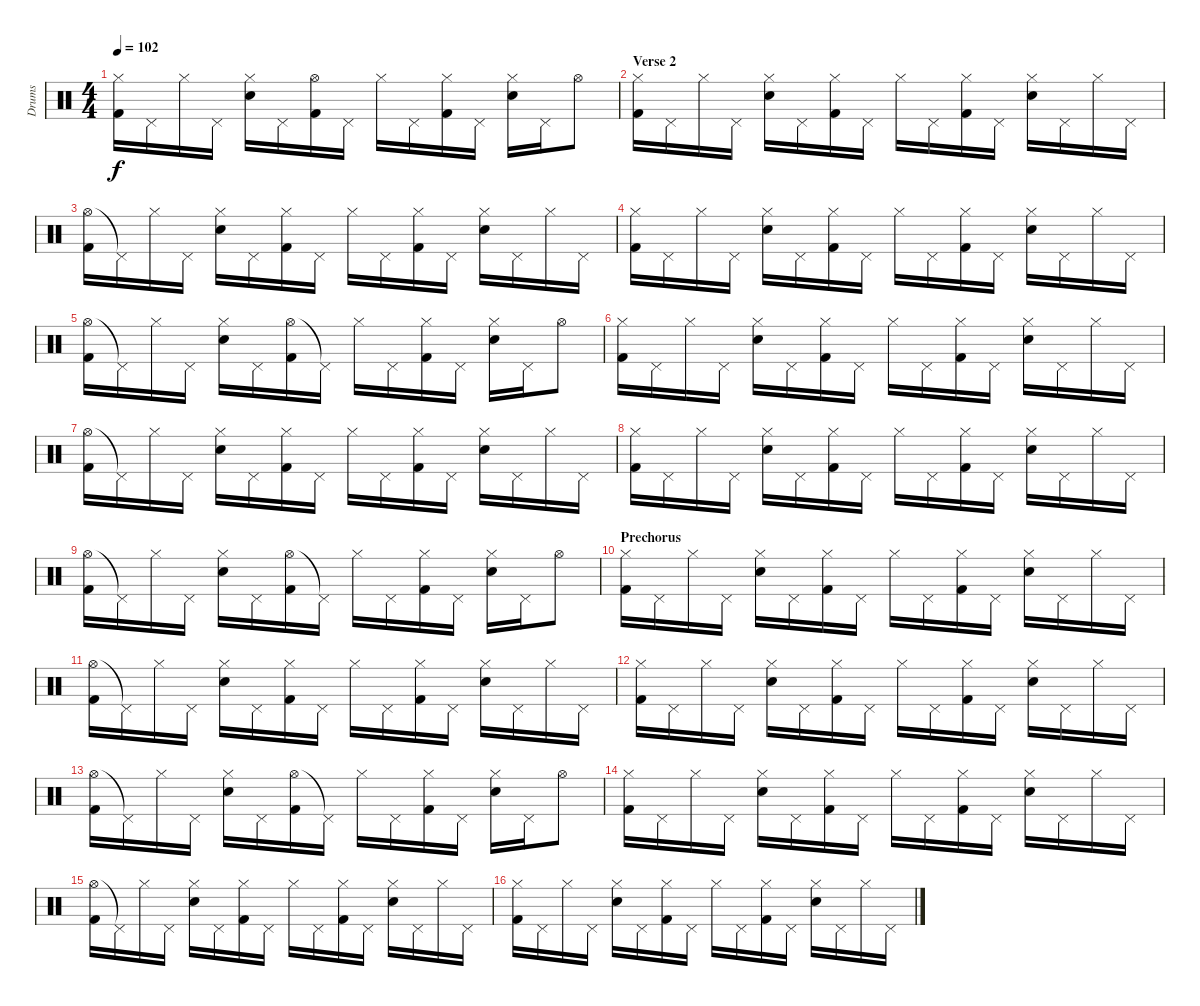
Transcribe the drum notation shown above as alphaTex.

\track ("Drums" "Drums") {instrument percussion}
\staff {score}
\articulation defaults
\ts (4 4)
\tempo 102
\clef neutral
\ks c
("Hi-Hat (closed)" "Kick (hit) 2").16{dy f} "Pedal Hi-Hat (hit)".16 "Hi-Hat (closed)".16 "Pedal Hi-Hat (hit)".16 ("Hi-Hat (closed)" "Electric Snare (hit)").16 "Pedal Hi-Hat (hit)".16 ("Hi-Hat (open)" "Kick (hit) 2").16 "Pedal Hi-Hat (hit)".16 "Hi-Hat (closed)".16 "Pedal Hi-Hat (hit)".16 ("Hi-Hat (closed)" "Kick (hit) 2").16 "Pedal Hi-Hat (hit)".16 ("Hi-Hat (closed)" "Electric Snare (hit)").16 "Pedal Hi-Hat (hit)".16 "Hi-Hat (open)".8 |
\section ("" "Verse 2")
("Hi-Hat (closed)" "Kick (hit) 2").16 "Pedal Hi-Hat (hit)".16 "Hi-Hat (closed)".16 "Pedal Hi-Hat (hit)".16 ("Hi-Hat (closed)" "Electric Snare (hit)").16 "Pedal Hi-Hat (hit)".16 ("Hi-Hat (closed)" "Kick (hit) 2").16 "Pedal Hi-Hat (hit)".16 "Hi-Hat (closed)".16 "Pedal Hi-Hat (hit)".16 ("Hi-Hat (closed)" "Kick (hit) 2").16 "Pedal Hi-Hat (hit)".16 ("Hi-Hat (closed)" "Electric Snare (hit)").16 "Pedal Hi-Hat (hit)".16 "Hi-Hat (closed)".16 "Pedal Hi-Hat (hit)".16 |
("Hi-Hat (open)" "Kick (hit) 2").16 "Pedal Hi-Hat (hit)"{t}.16 "Hi-Hat (closed)".16 "Pedal Hi-Hat (hit)".16 ("Hi-Hat (closed)" "Electric Snare (hit)").16 "Pedal Hi-Hat (hit)".16 ("Hi-Hat (closed)" "Kick (hit) 2").16 "Pedal Hi-Hat (hit)".16 "Hi-Hat (closed)".16 "Pedal Hi-Hat (hit)".16 ("Hi-Hat (closed)" "Kick (hit) 2").16 "Pedal Hi-Hat (hit)".16 ("Hi-Hat (closed)" "Electric Snare (hit)").16 "Pedal Hi-Hat (hit)".16 "Hi-Hat (closed)".16 "Pedal Hi-Hat (hit)".16 |
("Hi-Hat (closed)" "Kick (hit) 2").16 "Pedal Hi-Hat (hit)".16 "Hi-Hat (closed)".16 "Pedal Hi-Hat (hit)".16 ("Hi-Hat (closed)" "Electric Snare (hit)").16 "Pedal Hi-Hat (hit)".16 ("Hi-Hat (closed)" "Kick (hit) 2").16 "Pedal Hi-Hat (hit)".16 "Hi-Hat (closed)".16 "Pedal Hi-Hat (hit)".16 ("Hi-Hat (closed)" "Kick (hit) 2").16 "Pedal Hi-Hat (hit)".16 ("Hi-Hat (closed)" "Electric Snare (hit)").16 "Pedal Hi-Hat (hit)".16 "Hi-Hat (closed)".16 "Pedal Hi-Hat (hit)".16 |
("Hi-Hat (open)" "Kick (hit) 2").16 "Pedal Hi-Hat (hit)"{t}.16 "Hi-Hat (closed)".16 "Pedal Hi-Hat (hit)".16 ("Hi-Hat (closed)" "Electric Snare (hit)").16 "Pedal Hi-Hat (hit)".16 ("Hi-Hat (open)" "Kick (hit) 2").16 "Pedal Hi-Hat (hit)"{t}.16 "Hi-Hat (closed)".16 "Pedal Hi-Hat (hit)".16 ("Hi-Hat (closed)" "Kick (hit) 2").16 "Pedal Hi-Hat (hit)".16 ("Hi-Hat (closed)" "Electric Snare (hit)").16 "Pedal Hi-Hat (hit)".16 "Hi-Hat (open)".8 |
("Hi-Hat (closed)" "Kick (hit) 2").16 "Pedal Hi-Hat (hit)".16 "Hi-Hat (closed)".16 "Pedal Hi-Hat (hit)".16 ("Hi-Hat (closed)" "Electric Snare (hit)").16 "Pedal Hi-Hat (hit)".16 ("Hi-Hat (closed)" "Kick (hit) 2").16 "Pedal Hi-Hat (hit)".16 "Hi-Hat (closed)".16 "Pedal Hi-Hat (hit)".16 ("Hi-Hat (closed)" "Kick (hit) 2").16 "Pedal Hi-Hat (hit)".16 ("Hi-Hat (closed)" "Electric Snare (hit)").16 "Pedal Hi-Hat (hit)".16 "Hi-Hat (closed)".16 "Pedal Hi-Hat (hit)".16 |
("Hi-Hat (open)" "Kick (hit) 2").16 "Pedal Hi-Hat (hit)"{t}.16 "Hi-Hat (closed)".16 "Pedal Hi-Hat (hit)".16 ("Hi-Hat (closed)" "Electric Snare (hit)").16 "Pedal Hi-Hat (hit)".16 ("Hi-Hat (closed)" "Kick (hit) 2").16 "Pedal Hi-Hat (hit)".16 "Hi-Hat (closed)".16 "Pedal Hi-Hat (hit)".16 ("Hi-Hat (closed)" "Kick (hit) 2").16 "Pedal Hi-Hat (hit)".16 ("Hi-Hat (closed)" "Electric Snare (hit)").16 "Pedal Hi-Hat (hit)".16 "Hi-Hat (closed)".16 "Pedal Hi-Hat (hit)".16 |
("Hi-Hat (closed)" "Kick (hit) 2").16 "Pedal Hi-Hat (hit)".16 "Hi-Hat (closed)".16 "Pedal Hi-Hat (hit)".16 ("Hi-Hat (closed)" "Electric Snare (hit)").16 "Pedal Hi-Hat (hit)".16 ("Hi-Hat (closed)" "Kick (hit) 2").16 "Pedal Hi-Hat (hit)".16 "Hi-Hat (closed)".16 "Pedal Hi-Hat (hit)".16 ("Hi-Hat (closed)" "Kick (hit) 2").16 "Pedal Hi-Hat (hit)".16 ("Hi-Hat (closed)" "Electric Snare (hit)").16 "Pedal Hi-Hat (hit)".16 "Hi-Hat (closed)".16 "Pedal Hi-Hat (hit)".16 |
("Hi-Hat (open)" "Kick (hit) 2").16 "Pedal Hi-Hat (hit)"{t}.16 "Hi-Hat (closed)".16 "Pedal Hi-Hat (hit)".16 ("Hi-Hat (closed)" "Electric Snare (hit)").16 "Pedal Hi-Hat (hit)".16 ("Hi-Hat (open)" "Kick (hit) 2").16 "Pedal Hi-Hat (hit)"{t}.16 "Hi-Hat (closed)".16 "Pedal Hi-Hat (hit)".16 ("Hi-Hat (closed)" "Kick (hit) 2").16 "Pedal Hi-Hat (hit)".16 ("Hi-Hat (closed)" "Electric Snare (hit)").16 "Pedal Hi-Hat (hit)".16 "Hi-Hat (open)".8 |
\section ("" "Prechorus")
("Hi-Hat (closed)" "Kick (hit) 2").16 "Pedal Hi-Hat (hit)".16 "Hi-Hat (closed)".16 "Pedal Hi-Hat (hit)".16 ("Hi-Hat (closed)" "Electric Snare (hit)").16 "Pedal Hi-Hat (hit)".16 ("Hi-Hat (closed)" "Kick (hit) 2").16 "Pedal Hi-Hat (hit)".16 "Hi-Hat (closed)".16 "Pedal Hi-Hat (hit)".16 ("Hi-Hat (closed)" "Kick (hit) 2").16 "Pedal Hi-Hat (hit)".16 ("Hi-Hat (closed)" "Electric Snare (hit)").16 "Pedal Hi-Hat (hit)".16 "Hi-Hat (closed)".16 "Pedal Hi-Hat (hit)".16 |
("Hi-Hat (open)" "Kick (hit) 2").16 "Pedal Hi-Hat (hit)"{t}.16 "Hi-Hat (closed)".16 "Pedal Hi-Hat (hit)".16 ("Hi-Hat (closed)" "Electric Snare (hit)").16 "Pedal Hi-Hat (hit)".16 ("Hi-Hat (closed)" "Kick (hit) 2").16 "Pedal Hi-Hat (hit)".16 "Hi-Hat (closed)".16 "Pedal Hi-Hat (hit)".16 ("Hi-Hat (closed)" "Kick (hit) 2").16 "Pedal Hi-Hat (hit)".16 ("Hi-Hat (closed)" "Electric Snare (hit)").16 "Pedal Hi-Hat (hit)".16 "Hi-Hat (closed)".16 "Pedal Hi-Hat (hit)".16 |
("Hi-Hat (closed)" "Kick (hit) 2").16 "Pedal Hi-Hat (hit)".16 "Hi-Hat (closed)".16 "Pedal Hi-Hat (hit)".16 ("Hi-Hat (closed)" "Electric Snare (hit)").16 "Pedal Hi-Hat (hit)".16 ("Hi-Hat (closed)" "Kick (hit) 2").16 "Pedal Hi-Hat (hit)".16 "Hi-Hat (closed)".16 "Pedal Hi-Hat (hit)".16 ("Hi-Hat (closed)" "Kick (hit) 2").16 "Pedal Hi-Hat (hit)".16 ("Hi-Hat (closed)" "Electric Snare (hit)").16 "Pedal Hi-Hat (hit)".16 "Hi-Hat (closed)".16 "Pedal Hi-Hat (hit)".16 |
("Hi-Hat (open)" "Kick (hit) 2").16 "Pedal Hi-Hat (hit)"{t}.16 "Hi-Hat (closed)".16 "Pedal Hi-Hat (hit)".16 ("Hi-Hat (closed)" "Electric Snare (hit)").16 "Pedal Hi-Hat (hit)".16 ("Hi-Hat (open)" "Kick (hit) 2").16 "Pedal Hi-Hat (hit)"{t}.16 "Hi-Hat (closed)".16 "Pedal Hi-Hat (hit)".16 ("Hi-Hat (closed)" "Kick (hit) 2").16 "Pedal Hi-Hat (hit)".16 ("Hi-Hat (closed)" "Electric Snare (hit)").16 "Pedal Hi-Hat (hit)".16 "Hi-Hat (open)".8 |
("Hi-Hat (closed)" "Kick (hit) 2").16 "Pedal Hi-Hat (hit)".16 "Hi-Hat (closed)".16 "Pedal Hi-Hat (hit)".16 ("Hi-Hat (closed)" "Electric Snare (hit)").16 "Pedal Hi-Hat (hit)".16 ("Hi-Hat (closed)" "Kick (hit) 2").16 "Pedal Hi-Hat (hit)".16 "Hi-Hat (closed)".16 "Pedal Hi-Hat (hit)".16 ("Hi-Hat (closed)" "Kick (hit) 2").16 "Pedal Hi-Hat (hit)".16 ("Hi-Hat (closed)" "Electric Snare (hit)").16 "Pedal Hi-Hat (hit)".16 "Hi-Hat (closed)".16 "Pedal Hi-Hat (hit)".16 |
("Hi-Hat (open)" "Kick (hit) 2").16 "Pedal Hi-Hat (hit)"{t}.16 "Hi-Hat (closed)".16 "Pedal Hi-Hat (hit)".16 ("Hi-Hat (closed)" "Electric Snare (hit)").16 "Pedal Hi-Hat (hit)".16 ("Hi-Hat (closed)" "Kick (hit) 2").16 "Pedal Hi-Hat (hit)".16 "Hi-Hat (closed)".16 "Pedal Hi-Hat (hit)".16 ("Hi-Hat (closed)" "Kick (hit) 2").16 "Pedal Hi-Hat (hit)".16 ("Hi-Hat (closed)" "Electric Snare (hit)").16 "Pedal Hi-Hat (hit)".16 "Hi-Hat (closed)".16 "Pedal Hi-Hat (hit)".16 |
("Hi-Hat (closed)" "Kick (hit) 2").16 "Pedal Hi-Hat (hit)".16 "Hi-Hat (closed)".16 "Pedal Hi-Hat (hit)".16 ("Hi-Hat (closed)" "Electric Snare (hit)").16 "Pedal Hi-Hat (hit)".16 ("Hi-Hat (closed)" "Kick (hit) 2").16 "Pedal Hi-Hat (hit)".16 "Hi-Hat (closed)".16 "Pedal Hi-Hat (hit)".16 ("Hi-Hat (closed)" "Kick (hit) 2").16 "Pedal Hi-Hat (hit)".16 ("Hi-Hat (closed)" "Electric Snare (hit)").16 "Pedal Hi-Hat (hit)".16 "Hi-Hat (closed)".16 "Pedal Hi-Hat (hit)".16
